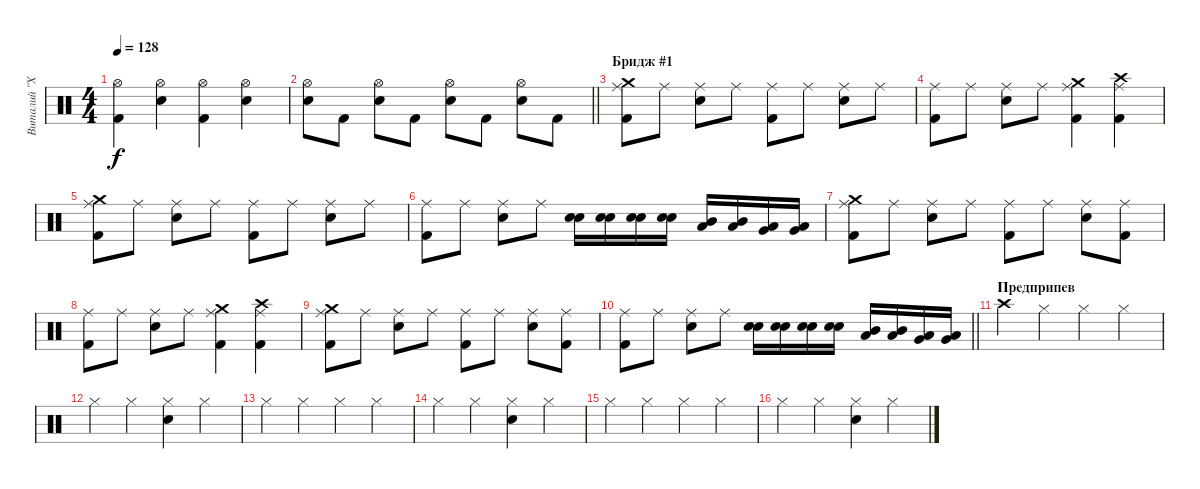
\track ("Виталий \"Хамер\" Лядов" "Виталий \"Х") {instrument percussion}
\staff {score}
\articulation defaults
\ts (4 4)
\tempo 128
\clef neutral
\ks c
("Kick (hit) 2" "Hi-Hat (open)").4{dy f} ("Electric Snare (hit)" "Hi-Hat (open)").4 ("Kick (hit) 2" "Hi-Hat (open)").4 ("Electric Snare (hit)" "Hi-Hat (open)").4 |
\barLineRight lightlight
("Electric Snare (hit)" "Hi-Hat (open)").8 "Kick (hit) 2".8 ("Electric Snare (hit)" "Hi-Hat (open)").8 "Kick (hit) 2".8 ("Electric Snare (hit)" "Hi-Hat (open)").8 "Kick (hit) 2".8 ("Electric Snare (hit)" "Hi-Hat (open)").8 "Kick (hit) 2".8 |
\section ("" "Бридж #1")
("Kick (hit) 2" "Ride (middle)" "Crash medium (hit)").8 "Ride (middle)".8 ("Electric Snare (hit)" "Ride (middle)").8 "Ride (middle)".8 ("Kick (hit) 2" "Ride (middle)").8 "Ride (middle)".8 ("Electric Snare (hit)" "Ride (middle)").8 "Ride (middle)".8 |
("Kick (hit) 2" "Ride (middle)").8 "Ride (middle)".8 ("Electric Snare (hit)" "Ride (middle)").8 "Ride (middle)".8 ("Kick (hit) 2" "Ride (middle)" "Crash medium (hit)").4 ("Kick (hit) 2" "Ride (middle)" "Crash high (hit)").4 |
("Kick (hit) 2" "Ride (middle)" "Crash medium (hit)").8 "Ride (middle)".8 ("Electric Snare (hit)" "Ride (middle)").8 "Ride (middle)".8 ("Kick (hit) 2" "Ride (middle)").8 "Ride (middle)".8 ("Electric Snare (hit)" "Ride (middle)").8 "Ride (middle)".8 |
("Kick (hit) 2" "Ride (middle)").8 "Ride (middle)".8 ("Electric Snare (hit)" "Ride (middle)").8 "Ride (middle)".8 ("Electric Snare (hit)" "Electric Snare (hit)").16 ("Electric Snare (hit)" "Electric Snare (hit)").16 ("Electric Snare (hit)" "Electric Snare (hit)").16 ("Electric Snare (hit)" "Electric Snare (hit)").16 ("Mid Tom (hit)" "Low Tom (hit)").16 ("Mid Tom (hit)" "Low Tom (hit)").16 ("Low Tom (hit)" "Very Low Tom (hit)").16 ("Low Tom (hit)" "Very Low Tom (hit)").16 |
("Kick (hit) 2" "Ride (middle)" "Crash medium (hit)").8 "Ride (middle)".8 ("Electric Snare (hit)" "Ride (middle)").8 "Ride (middle)".8 ("Kick (hit) 2" "Ride (middle)").8 "Ride (middle)".8 ("Electric Snare (hit)" "Ride (middle)").8 ("Kick (hit) 2" "Ride (middle)").8 |
("Kick (hit) 2" "Ride (middle)").8 "Ride (middle)".8 ("Electric Snare (hit)" "Ride (middle)").8 "Ride (middle)".8 ("Kick (hit) 2" "Ride (middle)" "Crash medium (hit)").4 ("Kick (hit) 2" "Ride (middle)" "Crash high (hit)").4 |
("Kick (hit) 2" "Ride (middle)" "Crash medium (hit)").8 "Ride (middle)".8 ("Electric Snare (hit)" "Ride (middle)").8 "Ride (middle)".8 ("Kick (hit) 2" "Ride (middle)").8 "Ride (middle)".8 ("Electric Snare (hit)" "Ride (middle)").8 ("Kick (hit) 2" "Ride (middle)").8 |
\barLineRight lightlight
("Kick (hit) 2" "Ride (middle)").8 "Ride (middle)".8 ("Electric Snare (hit)" "Ride (middle)").8 "Ride (middle)".8 ("Electric Snare (hit)" "Electric Snare (hit)").16 ("Electric Snare (hit)" "Electric Snare (hit)").16 ("Electric Snare (hit)" "Electric Snare (hit)").16 ("Electric Snare (hit)" "Electric Snare (hit)").16 ("Mid Tom (hit)" "Low Tom (hit)").16 ("Mid Tom (hit)" "Low Tom (hit)").16 ("Low Tom (hit)" "Very Low Tom (hit)").16 ("Low Tom (hit)" "Very Low Tom (hit)").16 |
\section ("" "Предприпев")
"Crash high (hit)".4 "Hi-Hat (closed)".4 "Hi-Hat (closed)".4 "Hi-Hat (closed)".4 |
"Hi-Hat (closed)".4 "Hi-Hat (closed)".4 ("Electric Snare (hit)" "Hi-Hat (closed)").4 "Hi-Hat (closed)".4 |
"Hi-Hat (closed)".4 "Hi-Hat (closed)".4 "Hi-Hat (closed)".4 "Hi-Hat (closed)".4 |
"Hi-Hat (closed)".4 "Hi-Hat (closed)".4 ("Electric Snare (hit)" "Hi-Hat (closed)").4 "Hi-Hat (closed)".4 |
"Hi-Hat (closed)".4 "Hi-Hat (closed)".4 "Hi-Hat (closed)".4 "Hi-Hat (closed)".4 |
"Hi-Hat (closed)".4 "Hi-Hat (closed)".4 ("Electric Snare (hit)" "Hi-Hat (closed)").4 "Hi-Hat (closed)".4
